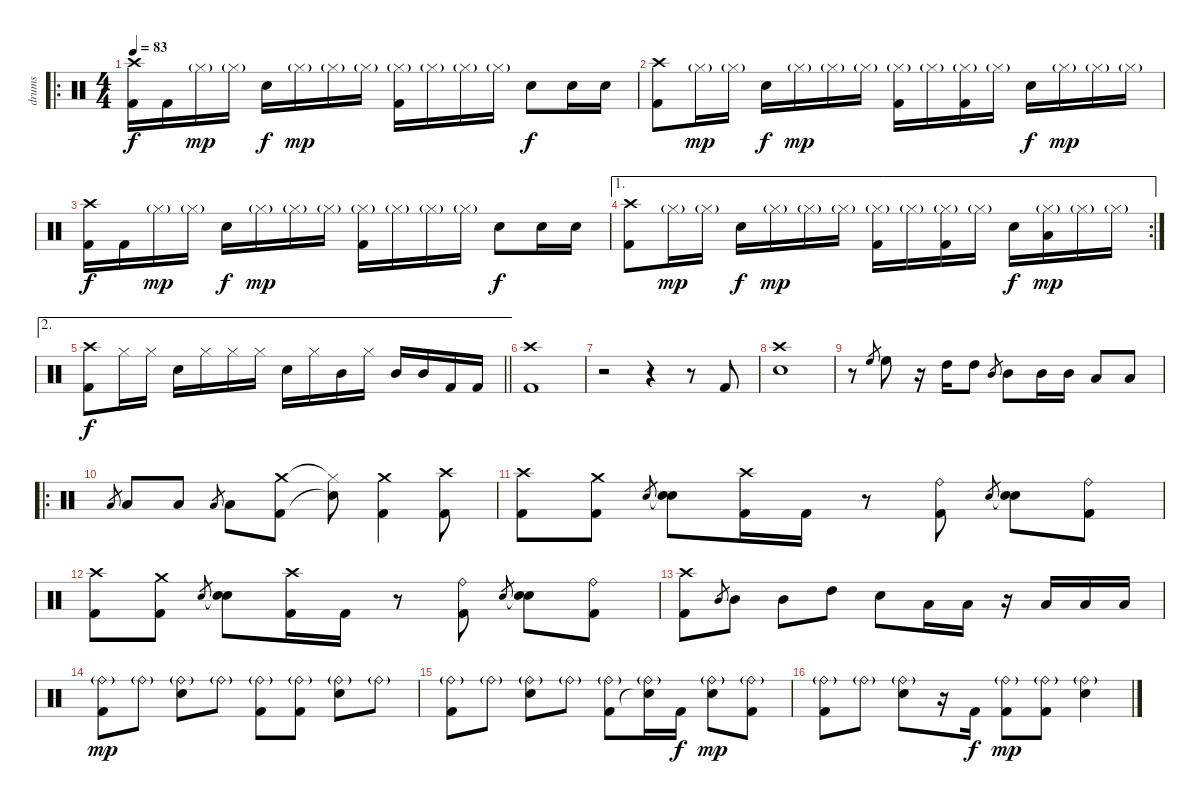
\track ("drums" "drums") {instrument percussion}
\staff {score}
\articulation defaults
\ro
\ts (4 4)
\tempo 83
\clef neutral
\ks c
("Crash high (hit)" "Kick (hit) 2").16{dy f} "Kick (hit) 2".16 "Hi-Hat (closed)"{g}.16{dy mp} "Hi-Hat (closed)"{g}.16 "Snare (hit) 2".16{dy f} "Hi-Hat (closed)"{g}.16{dy mp} "Hi-Hat (closed)"{g}.16 "Hi-Hat (closed)"{g}.16 ("Hi-Hat (closed)"{g} "Kick (hit) 2").16 "Hi-Hat (closed)"{g}.16 "Hi-Hat (closed)"{g}.16 "Hi-Hat (closed)"{g}.16 "Snare (hit) 2".8{dy f} "Snare (hit) 2".16 "Snare (hit) 2".16 |
("Crash high (hit)" "Kick (hit) 2").8 "Hi-Hat (closed)"{g}.16{dy mp} "Hi-Hat (closed)"{g}.16 "Snare (hit) 2".16{dy f} "Hi-Hat (closed)"{g}.16{dy mp} "Hi-Hat (closed)"{g}.16 "Hi-Hat (closed)"{g}.16 ("Hi-Hat (closed)"{g} "Kick (hit) 2").16 "Hi-Hat (closed)"{g}.16 ("Hi-Hat (closed)"{g} "Kick (hit) 2").16 "Hi-Hat (closed)"{g}.16 "Snare (hit) 2".16{dy f} "Hi-Hat (closed)"{g}.16{dy mp} "Hi-Hat (closed)"{g}.16 "Hi-Hat (closed)"{g}.16 |
("Crash high (hit)" "Kick (hit) 2").16{dy f} "Kick (hit) 2".16 "Hi-Hat (closed)"{g}.16{dy mp} "Hi-Hat (closed)"{g}.16 "Snare (hit) 2".16{dy f} "Hi-Hat (closed)"{g}.16{dy mp} "Hi-Hat (closed)"{g}.16 "Hi-Hat (closed)"{g}.16 ("Hi-Hat (closed)"{g} "Kick (hit) 2").16 "Hi-Hat (closed)"{g}.16 "Hi-Hat (closed)"{g}.16 "Hi-Hat (closed)"{g}.16 "Snare (hit) 2".8{dy f} "Snare (hit) 2".16 "Snare (hit) 2".16 |
\ae 1
\rc 2
("Crash high (hit)" "Kick (hit) 2").8 "Hi-Hat (closed)"{g}.16{dy mp} "Hi-Hat (closed)"{g}.16 "Snare (hit) 2".16{dy f} "Hi-Hat (closed)"{g}.16{dy mp} "Hi-Hat (closed)"{g}.16 "Hi-Hat (closed)"{g}.16 ("Hi-Hat (closed)"{g} "Kick (hit) 2").16 "Hi-Hat (closed)"{g}.16 ("Hi-Hat (closed)"{g} "Kick (hit) 2").16 "Hi-Hat (closed)"{g}.16 "Snare (hit) 2".16{dy f} ("Hi-Hat (closed)"{g} "Low Tom (hit)").16{dy mp} "Hi-Hat (closed)"{g}.16 "Hi-Hat (closed)"{g}.16 |
\ae 2
\barLineRight lightlight
("Crash high (hit)" "Kick (hit) 2").8{dy f} "Hi-Hat (closed)".16 "Hi-Hat (closed)".16 "Snare (hit) 2".16 "Hi-Hat (closed)".16 "Hi-Hat (closed)".16 "Hi-Hat (closed)".16 "Snare (hit) 2".16 "Hi-Hat (closed)".16 "Mid Tom (hit)".16 "Hi-Hat (closed)".16 "Mid Tom (hit)".16 "Mid Tom (hit)".16 "Kick (hit) 2".16 "Kick (hit) 2".16 |
("Crash high (hit)" "Kick (hit) 2").1 |
r.2 r.4 r.8 "Kick (hit) 2".8 |
("Crash high (hit)" "Snare (hit) 2").1 |
r.8 "High Floor Tom (hit)".8{gr} "High Floor Tom (hit)".8 r.16 "High Tom (hit)".16 "High Tom (hit)".8 "Mid Tom (hit)".8{gr} "Mid Tom (hit)".8 "Mid Tom (hit)".16 "Mid Tom (hit)".16 "Low Tom (hit)".8 "Low Tom (hit)".8 |
\ro "Low Tom (hit)".8{gr} "Low Tom (hit)".8 "Low Tom (hit)".8 "Low Tom (hit)".8{gr} "Low Tom (hit)".8
("Crash medium (hit)" "Kick (hit) 2").8 ("Hi-Hat (closed)"{t} "Snare (hit)"{t}).8 ("Crash medium (hit)" "Kick (hit) 2").4 ("Crash high (hit)" "Kick (hit) 2").8 |
("Crash high (hit)" "Kick (hit) 2").8 ("Crash medium (hit)" "Kick (hit) 2").8 "Snare (hit) 2".8{gr} ("Snare (hit)"{t} "Snare (hit) 2").8 ("Crash high (hit)" "Kick (hit) 2").16 "Kick (hit) 2".16 r.8 ("Ride (bell)" "Kick (hit) 2").8 "Snare (hit) 2".8{gr} ("Snare (hit)"{t} "Snare (hit) 2").8 ("Ride (bell)" "Kick (hit) 2").8 |
("Crash high (hit)" "Kick (hit) 2").8 ("Crash medium (hit)" "Kick (hit) 2").8 "Snare (hit) 2".8{gr} ("Snare (hit)"{t} "Snare (hit) 2").8 ("Crash high (hit)" "Kick (hit) 2").16 "Kick (hit) 2".16 r.8 ("Ride (bell)" "Kick (hit) 2").8 "Snare (hit) 2".8{gr} ("Snare (hit)"{t} "Snare (hit) 2").8 ("Ride (bell)" "Kick (hit) 2").8 |
("Crash high (hit)" "Kick (hit) 2").8 "Mid Tom (hit)".8{gr} "Mid Tom (hit)".8 "Mid Tom (hit)".8 "High Tom (hit)".8 "Snare (hit) 2".8 "Low Tom (hit)".16 "Low Tom (hit)".16 r.16 "Low Tom (hit)".16 "Low Tom (hit)".16 "Low Tom (hit)".16 |
("Ride (bell)"{g} "Kick (hit) 2").8{dy mp} "Ride (bell)"{g}.8 ("Ride (bell)"{g} "Snare (hit) 2").8 "Ride (bell)"{g}.8 ("Ride (bell)"{g} "Kick (hit) 2").8 ("Ride (bell)"{g} "Kick (hit) 2").8 ("Ride (bell)"{g} "Snare (hit) 2").8 "Ride (bell)"{g}.8 |
("Ride (bell)"{g} "Kick (hit) 2").8 "Ride (bell)"{g}.8 ("Ride (bell)"{g} "Snare (hit) 2").8 "Ride (bell)"{g}.8 ("Ride (bell)"{g} "Kick (hit) 2").8 ("Ride (bell)"{g} "Snare (hit)"{t}).16 "Kick (hit) 2".16{dy f} ("Ride (bell)"{g} "Snare (hit) 2").8{dy mp} ("Ride (bell)"{g} "Kick (hit) 2").8 |
("Ride (bell)"{g} "Kick (hit) 2").8 "Ride (bell)"{g}.8 ("Ride (bell)"{g} "Snare (hit) 2").8 r.16 "Kick (hit) 2".16{dy f} ("Ride (bell)"{g} "Kick (hit) 2").8{dy mp} ("Ride (bell)"{g} "Kick (hit) 2").8 ("Ride (bell)"{g} "Snare (hit) 2").4
